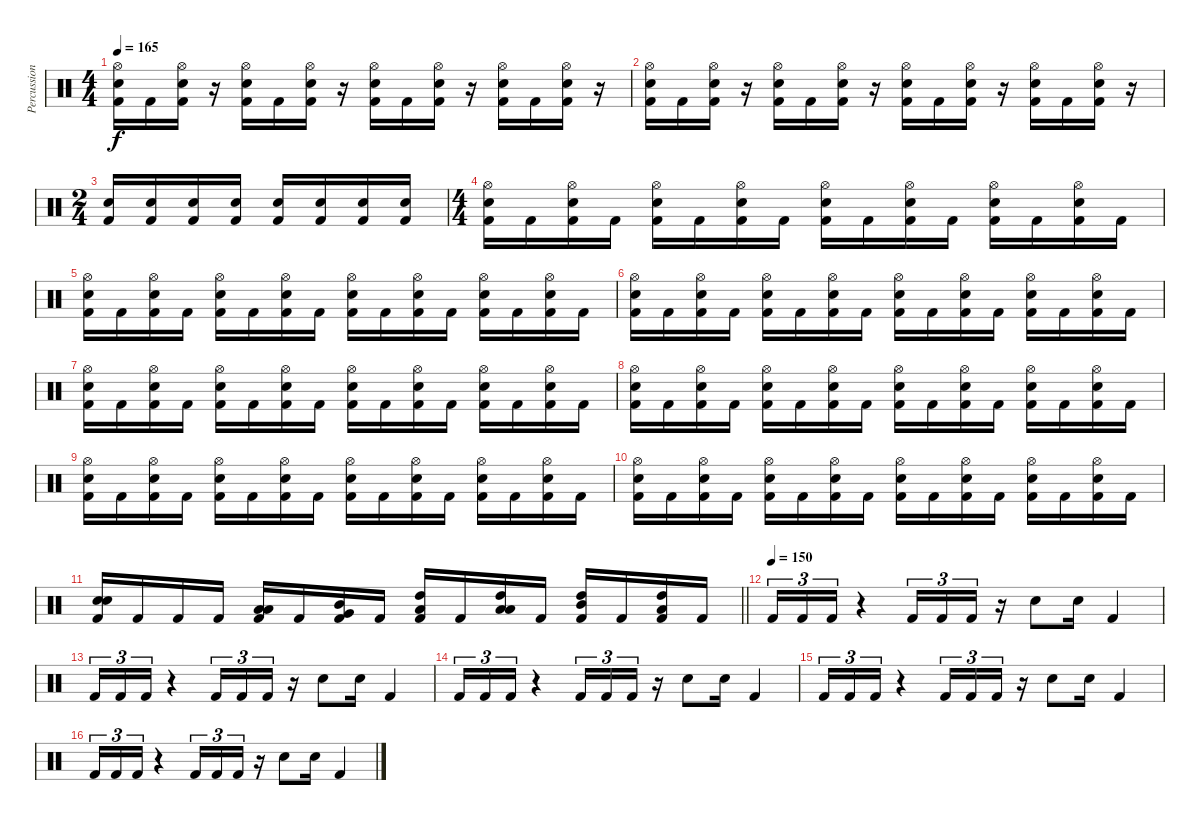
\track ("Percussion" "Percussion") {instrument percussion}
\staff {score}
\articulation defaults
\ts (4 4)
\tempo 165
\clef neutral
\ks c
("Hi-Hat (open)" "Electric Snare (hit)" "Kick (hit) 2").16{dy f} "Kick (hit) 2".16 ("Hi-Hat (open)" "Electric Snare (hit)" "Kick (hit) 2").16 r.16 ("Hi-Hat (open)" "Electric Snare (hit)" "Kick (hit) 2").16 "Kick (hit) 2".16 ("Hi-Hat (open)" "Electric Snare (hit)" "Kick (hit) 2").16 r.16 ("Hi-Hat (open)" "Electric Snare (hit)" "Kick (hit) 2").16 "Kick (hit) 2".16 ("Hi-Hat (open)" "Electric Snare (hit)" "Kick (hit) 2").16 r.16 ("Hi-Hat (open)" "Electric Snare (hit)" "Kick (hit) 2").16 "Kick (hit) 2".16 ("Hi-Hat (open)" "Electric Snare (hit)" "Kick (hit) 2").16 r.16 |
("Hi-Hat (open)" "Electric Snare (hit)" "Kick (hit) 2").16 "Kick (hit) 2".16 ("Hi-Hat (open)" "Electric Snare (hit)" "Kick (hit) 2").16 r.16 ("Hi-Hat (open)" "Electric Snare (hit)" "Kick (hit) 2").16 "Kick (hit) 2".16 ("Hi-Hat (open)" "Electric Snare (hit)" "Kick (hit) 2").16 r.16 ("Hi-Hat (open)" "Electric Snare (hit)" "Kick (hit) 2").16 "Kick (hit) 2".16 ("Hi-Hat (open)" "Electric Snare (hit)" "Kick (hit) 2").16 r.16 ("Hi-Hat (open)" "Electric Snare (hit)" "Kick (hit) 2").16 "Kick (hit) 2".16 ("Hi-Hat (open)" "Electric Snare (hit)" "Kick (hit) 2").16 r.16 |
\ts (2 4)
("Electric Snare (hit)" "Kick (hit) 2").16 ("Electric Snare (hit)" "Kick (hit) 2").16 ("Electric Snare (hit)" "Kick (hit) 2").16 ("Electric Snare (hit)" "Kick (hit) 2").16 ("Electric Snare (hit)" "Kick (hit) 2").16 ("Electric Snare (hit)" "Kick (hit) 2").16 ("Electric Snare (hit)" "Kick (hit) 2").16 ("Electric Snare (hit)" "Kick (hit) 2").16 |
\ts (4 4)
("Hi-Hat (open)" "Electric Snare (hit)" "Kick (hit) 2").16 "Kick (hit) 2".16 ("Hi-Hat (open)" "Electric Snare (hit)" "Kick (hit) 2").16 "Kick (hit) 2".16 ("Hi-Hat (open)" "Electric Snare (hit)" "Kick (hit) 2").16 "Kick (hit) 2".16 ("Hi-Hat (open)" "Electric Snare (hit)" "Kick (hit) 2").16 "Kick (hit) 2".16 ("Hi-Hat (open)" "Electric Snare (hit)" "Kick (hit) 2").16 "Kick (hit) 2".16 ("Hi-Hat (open)" "Electric Snare (hit)" "Kick (hit) 2").16 "Kick (hit) 2".16 ("Hi-Hat (open)" "Electric Snare (hit)" "Kick (hit) 2").16 "Kick (hit) 2".16 ("Hi-Hat (open)" "Electric Snare (hit)" "Kick (hit) 2").16 "Kick (hit) 2".16 |
("Hi-Hat (open)" "Electric Snare (hit)" "Kick (hit) 2").16 "Kick (hit) 2".16 ("Hi-Hat (open)" "Electric Snare (hit)" "Kick (hit) 2").16 "Kick (hit) 2".16 ("Hi-Hat (open)" "Electric Snare (hit)" "Kick (hit) 2").16 "Kick (hit) 2".16 ("Hi-Hat (open)" "Electric Snare (hit)" "Kick (hit) 2").16 "Kick (hit) 2".16 ("Hi-Hat (open)" "Electric Snare (hit)" "Kick (hit) 2").16 "Kick (hit) 2".16 ("Hi-Hat (open)" "Electric Snare (hit)" "Kick (hit) 2").16 "Kick (hit) 2".16 ("Hi-Hat (open)" "Electric Snare (hit)" "Kick (hit) 2").16 "Kick (hit) 2".16 ("Hi-Hat (open)" "Electric Snare (hit)" "Kick (hit) 2").16 "Kick (hit) 2".16 |
("Hi-Hat (open)" "Electric Snare (hit)" "Kick (hit) 2").16 "Kick (hit) 2".16 ("Hi-Hat (open)" "Electric Snare (hit)" "Kick (hit) 2").16 "Kick (hit) 2".16 ("Hi-Hat (open)" "Electric Snare (hit)" "Kick (hit) 2").16 "Kick (hit) 2".16 ("Hi-Hat (open)" "Electric Snare (hit)" "Kick (hit) 2").16 "Kick (hit) 2".16 ("Hi-Hat (open)" "Electric Snare (hit)" "Kick (hit) 2").16 "Kick (hit) 2".16 ("Hi-Hat (open)" "Electric Snare (hit)" "Kick (hit) 2").16 "Kick (hit) 2".16 ("Hi-Hat (open)" "Electric Snare (hit)" "Kick (hit) 2").16 "Kick (hit) 2".16 ("Hi-Hat (open)" "Electric Snare (hit)" "Kick (hit) 2").16 "Kick (hit) 2".16 |
("Hi-Hat (open)" "Electric Snare (hit)" "Kick (hit) 2").16 "Kick (hit) 2".16 ("Hi-Hat (open)" "Electric Snare (hit)" "Kick (hit) 2").16 "Kick (hit) 2".16 ("Hi-Hat (open)" "Electric Snare (hit)" "Kick (hit) 2").16 "Kick (hit) 2".16 ("Hi-Hat (open)" "Electric Snare (hit)" "Kick (hit) 2").16 "Kick (hit) 2".16 ("Hi-Hat (open)" "Electric Snare (hit)" "Kick (hit) 2").16 "Kick (hit) 2".16 ("Hi-Hat (open)" "Electric Snare (hit)" "Kick (hit) 2").16 "Kick (hit) 2".16 ("Hi-Hat (open)" "Electric Snare (hit)" "Kick (hit) 2").16 "Kick (hit) 2".16 ("Hi-Hat (open)" "Electric Snare (hit)" "Kick (hit) 2").16 "Kick (hit) 2".16 |
("Hi-Hat (open)" "Electric Snare (hit)" "Kick (hit) 2").16 "Kick (hit) 2".16 ("Hi-Hat (open)" "Electric Snare (hit)" "Kick (hit) 2").16 "Kick (hit) 2".16 ("Hi-Hat (open)" "Electric Snare (hit)" "Kick (hit) 2").16 "Kick (hit) 2".16 ("Hi-Hat (open)" "Electric Snare (hit)" "Kick (hit) 2").16 "Kick (hit) 2".16 ("Hi-Hat (open)" "Electric Snare (hit)" "Kick (hit) 2").16 "Kick (hit) 2".16 ("Hi-Hat (open)" "Electric Snare (hit)" "Kick (hit) 2").16 "Kick (hit) 2".16 ("Hi-Hat (open)" "Electric Snare (hit)" "Kick (hit) 2").16 "Kick (hit) 2".16 ("Hi-Hat (open)" "Electric Snare (hit)" "Kick (hit) 2").16 "Kick (hit) 2".16 |
("Hi-Hat (open)" "Electric Snare (hit)" "Kick (hit) 2").16 "Kick (hit) 2".16 ("Hi-Hat (open)" "Electric Snare (hit)" "Kick (hit) 2").16 "Kick (hit) 2".16 ("Hi-Hat (open)" "Electric Snare (hit)" "Kick (hit) 2").16 "Kick (hit) 2".16 ("Hi-Hat (open)" "Electric Snare (hit)" "Kick (hit) 2").16 "Kick (hit) 2".16 ("Hi-Hat (open)" "Electric Snare (hit)" "Kick (hit) 2").16 "Kick (hit) 2".16 ("Hi-Hat (open)" "Electric Snare (hit)" "Kick (hit) 2").16 "Kick (hit) 2".16 ("Hi-Hat (open)" "Electric Snare (hit)" "Kick (hit) 2").16 "Kick (hit) 2".16 ("Hi-Hat (open)" "Electric Snare (hit)" "Kick (hit) 2").16 "Kick (hit) 2".16 |
("Hi-Hat (open)" "Electric Snare (hit)" "Kick (hit) 2").16 "Kick (hit) 2".16 ("Hi-Hat (open)" "Electric Snare (hit)" "Kick (hit) 2").16 "Kick (hit) 2".16 ("Hi-Hat (open)" "Electric Snare (hit)" "Kick (hit) 2").16 "Kick (hit) 2".16 ("Hi-Hat (open)" "Electric Snare (hit)" "Kick (hit) 2").16 "Kick (hit) 2".16 ("Hi-Hat (open)" "Electric Snare (hit)" "Kick (hit) 2").16 "Kick (hit) 2".16 ("Hi-Hat (open)" "Electric Snare (hit)" "Kick (hit) 2").16 "Kick (hit) 2".16 ("Hi-Hat (open)" "Electric Snare (hit)" "Kick (hit) 2").16 "Kick (hit) 2".16 ("Hi-Hat (open)" "Electric Snare (hit)" "Kick (hit) 2").16 "Kick (hit) 2".16 |
\barLineRight lightlight
("Electric Snare (hit)" "Electric Snare (hit)" "Kick (hit) 2").16{bd 480} "Kick (hit) 2".16 "Kick (hit) 2".16 "Kick (hit) 2".16 ("Low Tom (hit)" "Low Floor Tom (hit)" "Kick (hit) 2").16 "Kick (hit) 2".16 ("Mid Tom (hit)" "Very Low Tom (hit)" "Kick (hit) 2").16 "Kick (hit) 2".16 ("Low Tom (hit)" "High Tom (hit)" "Kick (hit) 2").16 "Kick (hit) 2".16 ("Low Floor Tom (hit)" "Low Tom (hit)" "High Tom (hit)").16 "Kick (hit) 2".16 ("High Tom (hit)" "Mid Tom (hit)" "Kick (hit) 2").16 "Kick (hit) 2".16 ("Low Floor Tom (hit)" "High Tom (hit)" "Kick (hit) 2").16 "Kick (hit) 2".16 |
\tempo (150)
"Kick (hit) 2".16{tu (3 2)} "Kick (hit) 2".16{tu (3 2)} "Kick (hit) 2".16{tu (3 2)} r.4 "Kick (hit) 2".16{tu (3 2)} "Kick (hit) 2".16{tu (3 2)} "Kick (hit) 2".16{tu (3 2)} r.16 "Electric Snare (hit)".8 "Electric Snare (hit)".16 "Kick (hit) 2".4 |
"Kick (hit) 2".16{tu (3 2)} "Kick (hit) 2".16{tu (3 2)} "Kick (hit) 2".16{tu (3 2)} r.4 "Kick (hit) 2".16{tu (3 2)} "Kick (hit) 2".16{tu (3 2)} "Kick (hit) 2".16{tu (3 2)} r.16 "Electric Snare (hit)".8 "Electric Snare (hit)".16 "Kick (hit) 2".4 |
"Kick (hit) 2".16{tu (3 2)} "Kick (hit) 2".16{tu (3 2)} "Kick (hit) 2".16{tu (3 2)} r.4 "Kick (hit) 2".16{tu (3 2)} "Kick (hit) 2".16{tu (3 2)} "Kick (hit) 2".16{tu (3 2)} r.16 "Electric Snare (hit)".8 "Electric Snare (hit)".16 "Kick (hit) 2".4 |
"Kick (hit) 2".16{tu (3 2)} "Kick (hit) 2".16{tu (3 2)} "Kick (hit) 2".16{tu (3 2)} r.4 "Kick (hit) 2".16{tu (3 2)} "Kick (hit) 2".16{tu (3 2)} "Kick (hit) 2".16{tu (3 2)} r.16 "Electric Snare (hit)".8 "Electric Snare (hit)".16 "Kick (hit) 2".4 |
"Kick (hit) 2".16{tu (3 2)} "Kick (hit) 2".16{tu (3 2)} "Kick (hit) 2".16{tu (3 2)} r.4 "Kick (hit) 2".16{tu (3 2)} "Kick (hit) 2".16{tu (3 2)} "Kick (hit) 2".16{tu (3 2)} r.16 "Electric Snare (hit)".8 "Electric Snare (hit)".16 "Kick (hit) 2".4
